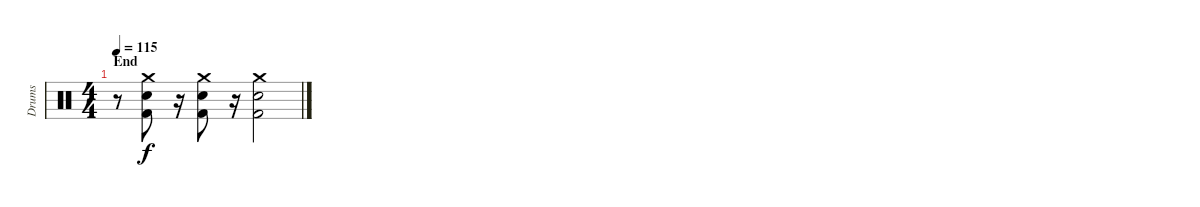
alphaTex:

\track ("Drums" "Drums") {instrument percussion}
\staff {score}
\articulation defaults
\ts (4 4)
\section ("" "End")
\tempo 115
\clef neutral
\ks c
r.8{dy f} ("Crash medium (hit)" "Electric Snare (hit)" "Kick (hit) 2").8 r.16 ("Crash medium (hit)" "Electric Snare (hit)" "Kick (hit) 2").8 r.16 ("Crash medium (hit)" "Electric Snare (hit)" "Kick (hit) 2").2
